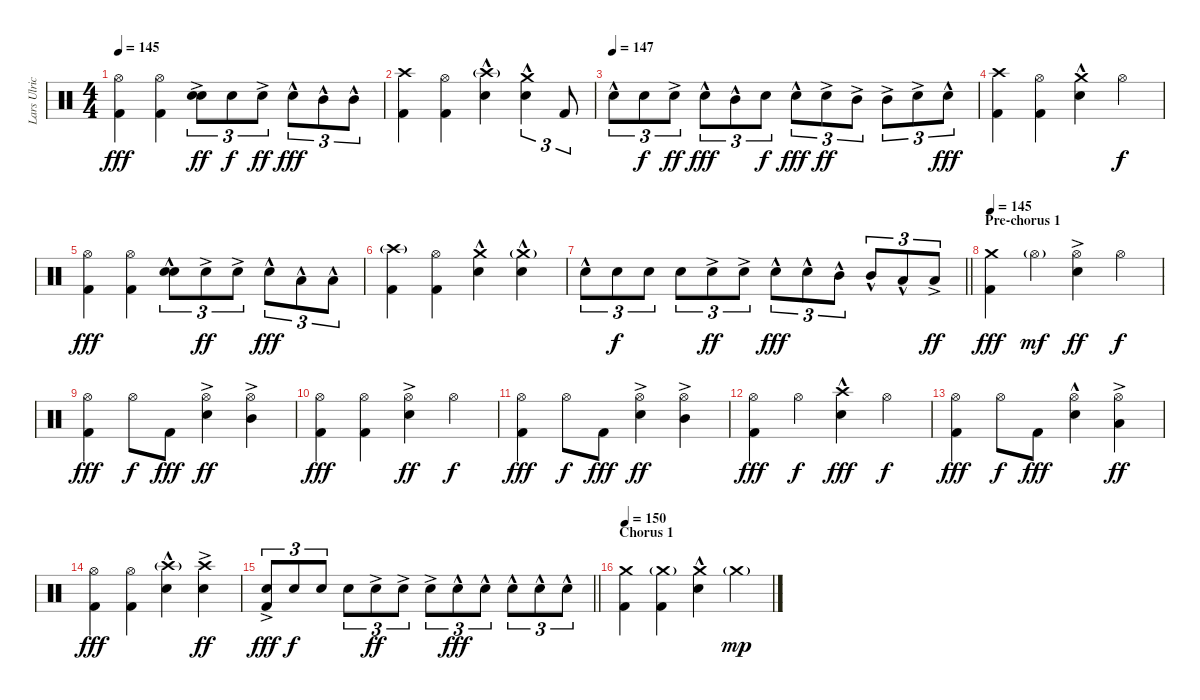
\track ("Lars Ulrich (Drums)" "Lars Ulric") {instrument percussion}
\staff {score}
\articulation defaults
\ts (4 4)
\tempo 145
\clef neutral
\ks c
("Hi-Hat (open)" "Kick (hit) 2").4{dy fff} ("Hi-Hat (open)" "Kick (hit) 2").4 ("Electric Snare (hit)"{ac} "Electric Snare (hit)"{ac}).8{tu (3 2) bd 60 dy ff} "Electric Snare (hit)".8{tu (3 2) dy f} "Electric Snare (hit)"{ac}.8{tu (3 2) dy ff} "Electric Snare (hit)"{hac}.8{tu (3 2) dy fff} "Mid Tom (hit)"{hac}.8{tu (3 2)} "Mid Tom (hit)"{hac}.8{tu (3 2)} |
("Crash high (hit)" "Kick (hit) 2").4 ("Hi-Hat (open)" "Kick (hit) 2").4 ("Crash high (hit)"{g} "Electric Snare (hit)"{hac}).4 ("Crash medium (hit)" "Electric Snare (hit)"{hac}).4{tu (3 2)} "Kick (hit) 2".8{tu (3 2)} |
\tempo (147)
"Electric Snare (hit)"{hac}.8{tu (3 2)} "Electric Snare (hit)".8{tu (3 2) dy f} "Electric Snare (hit)"{ac}.8{tu (3 2) dy ff} "Electric Snare (hit)"{hac}.8{tu (3 2) dy fff} "Mid Tom (hit)"{hac}.8{tu (3 2)} "Electric Snare (hit)".8{tu (3 2) dy f} "Electric Snare (hit)"{hac}.8{tu (3 2) dy fff} "Electric Snare (hit)"{ac}.8{tu (3 2) dy ff} "Mid Tom (hit)"{ac}.8{tu (3 2)} "Mid Tom (hit)"{ac}.8{tu (3 2)} "Electric Snare (hit)"{ac}.8{tu (3 2)} "Electric Snare (hit)"{hac}.8{tu (3 2) dy fff} |
("Crash high (hit)" "Kick (hit) 2").4 ("Hi-Hat (open)" "Kick (hit) 2").4 ("Crash medium (hit)" "Electric Snare (hit)"{hac}).4 "Hi-Hat (open)".4{dy f} |
("Hi-Hat (open)" "Kick (hit) 2").4{dy fff} ("Hi-Hat (open)" "Kick (hit) 2").4 ("Electric Snare (hit)"{hac} "Electric Snare (hit)"{hac}).8{tu (3 2) bd 120} "Electric Snare (hit)"{ac}.8{tu (3 2) dy ff} "Electric Snare (hit)"{ac}.8{tu (3 2)} "Electric Snare (hit)"{hac}.8{tu (3 2) dy fff} "Low Tom (hit)"{hac}.8{tu (3 2)} "Low Tom (hit)"{hac}.8{tu (3 2)} |
("Crash high (hit)"{g} "Kick (hit) 2").4 ("Hi-Hat (open)" "Kick (hit) 2").4 ("Crash medium (hit)" "Electric Snare (hit)"{hac}).4 ("Crash medium (hit)"{g} "Electric Snare (hit)"{hac}).4 |
\barLineRight lightlight "Electric Snare (hit)"{hac}.8{tu (3 2)} "Electric Snare (hit)".8{tu (3 2) dy f} "Electric Snare (hit)".8{tu (3 2)} "Electric Snare (hit)".8{tu (3 2)} "Electric Snare (hit)"{ac}.8{tu (3 2) dy ff} "Electric Snare (hit)"{ac}.8{tu (3 2)} "Electric Snare (hit)"{hac}.8{tu (3 2) dy fff} "Electric Snare (hit)"{hac}.8{tu (3 2)} "Mid Tom (hit)"{hac}.8{tu (3 2)} "Mid Tom (hit)"{hac}.8{tu (3 2)} "Low Tom (hit)"{hac}.8{tu (3 2)} "Low Tom (hit)"{ac}.8{tu (3 2) dy ff}
|
\section ("" "Pre-chorus 1")
\tempo 145
("Crash medium (hit)" "Kick (hit) 2").4{dy fff} "Hi-Hat (open)"{g}.4{dy mf} ("Hi-Hat (open)"{ac} "Electric Snare (hit)"{ac}).4{dy ff} "Hi-Hat (open)".4{dy f} |
("Hi-Hat (open)" "Kick (hit) 2").4{dy fff} "Hi-Hat (open)".8{dy f} "Kick (hit) 2".8{dy fff} ("Hi-Hat (open)"{ac} "Electric Snare (hit)"{ac}).4{dy ff} ("Hi-Hat (open)" "Mid Tom (hit)"{ac}).4 |
("Hi-Hat (open)" "Kick (hit) 2").4{dy fff} ("Hi-Hat (open)" "Kick (hit) 2").4 ("Hi-Hat (open)"{ac} "Electric Snare (hit)"{ac}).4{dy ff} "Hi-Hat (open)".4{dy f} |
("Hi-Hat (open)" "Kick (hit) 2").4{dy fff} "Hi-Hat (open)".8{dy f} "Kick (hit) 2".8{dy fff} ("Hi-Hat (open)"{ac} "Electric Snare (hit)"{ac}).4{dy ff} ("Hi-Hat (open)"{ac} "Mid Tom (hit)"{ac}).4 |
("Hi-Hat (open)" "Kick (hit) 2").4{dy fff} "Hi-Hat (open)".4{dy f} ("Crash high (hit)" "Electric Snare (hit)"{hac}).4{dy fff} "Hi-Hat (open)".4{dy f} |
("Hi-Hat (open)" "Kick (hit) 2").4{dy fff} "Hi-Hat (open)".8{dy f} "Kick (hit) 2".8{dy fff} ("Hi-Hat (open)"{hac} "Electric Snare (hit)"{hac}).4 ("Hi-Hat (open)"{ac} "Low Tom (hit)"{ac}).4{dy ff} |
("Hi-Hat (open)" "Kick (hit) 2").4{dy fff} ("Hi-Hat (open)" "Kick (hit) 2").4 ("Crash high (hit)"{g} "Electric Snare (hit)"{hac}).4 ("Crash high (hit)" "Electric Snare (hit)"{ac}).4{dy ff} |
\barLineRight lightlight
("Electric Snare (hit)"{ac} "Kick (hit) 2").8{tu (3 2) dy fff} "Electric Snare (hit)".8{tu (3 2) dy f} "Electric Snare (hit)".8{tu (3 2)} "Electric Snare (hit)".8{tu (3 2)} "Electric Snare (hit)"{ac}.8{tu (3 2) dy ff} "Electric Snare (hit)"{ac}.8{tu (3 2)} "Electric Snare (hit)"{ac}.8{tu (3 2)} "Electric Snare (hit)"{hac}.8{tu (3 2) dy fff} "Electric Snare (hit)"{hac}.8{tu (3 2)} "Electric Snare (hit)"{hac}.8{tu (3 2)} "Electric Snare (hit)"{hac}.8{tu (3 2)} "Electric Snare (hit)"{hac}.8{tu (3 2)} |
\section ("" "Chorus 1")
\tempo 150
("Crash medium (hit)" "Kick (hit) 2").4 ("Crash medium (hit)"{g} "Kick (hit) 2").4 ("Crash medium (hit)" "Electric Snare (hit)"{hac}).4 "Crash medium (hit)"{g}.4{dy mp}
